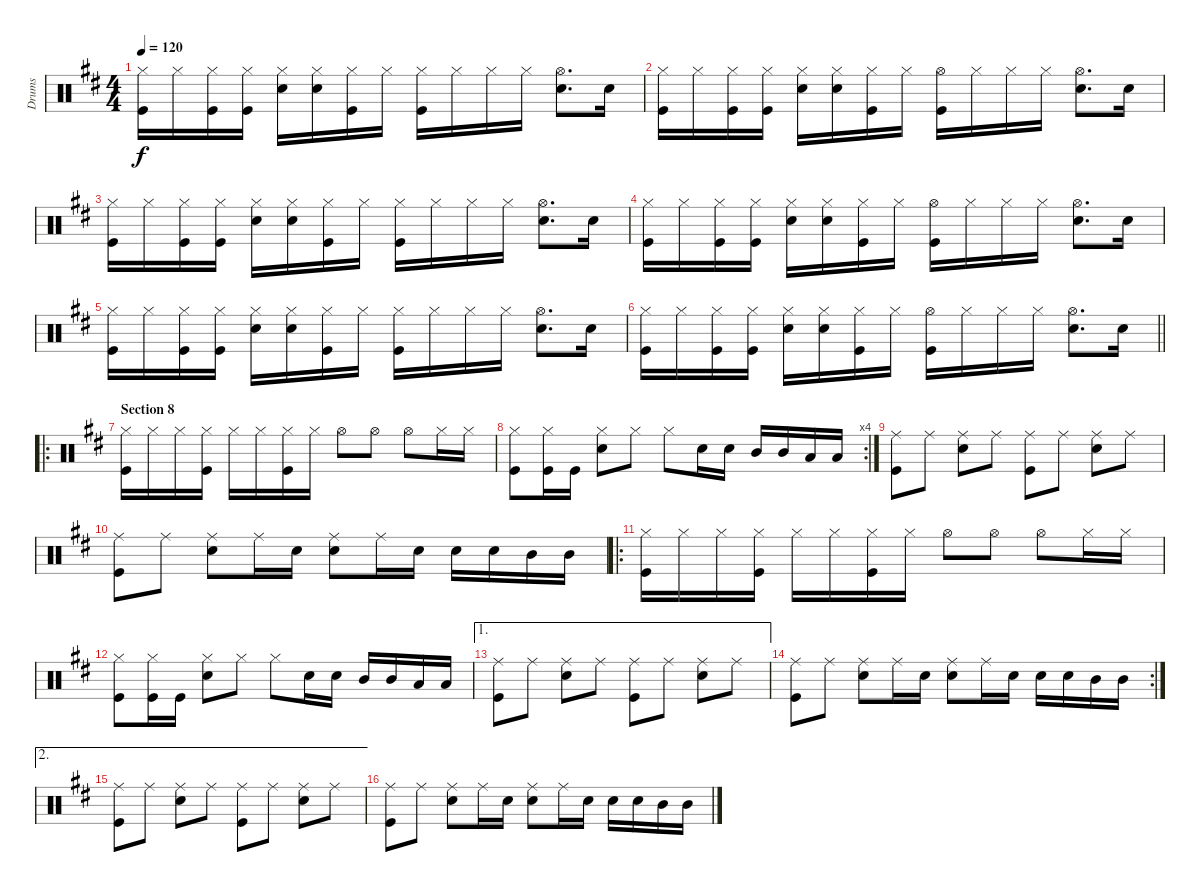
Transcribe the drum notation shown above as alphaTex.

\track ("Drums" "Drums") {instrument percussion}
\staff {score}
\articulation defaults
\ts (4 4)
\tempo 120
\clef neutral
\ks d
("Hi-Hat (closed)" "Kick (hit)").16{dy f} "Hi-Hat (closed)".16 ("Hi-Hat (closed)" "Kick (hit)").16 ("Hi-Hat (closed)" "Kick (hit)").16 ("Hi-Hat (closed)" "Snare (hit) 2").16 ("Hi-Hat (closed)" "Snare (hit) 2").16 ("Hi-Hat (closed)" "Kick (hit)").16 "Hi-Hat (closed)".16 ("Hi-Hat (closed)" "Kick (hit)").16 "Hi-Hat (closed)".16 "Hi-Hat (closed)".16 "Hi-Hat (closed)".16 ("Hi-Hat (open)" "Snare (hit) 2").8{d} "Snare (hit) 2".16 |
("Hi-Hat (closed)" "Kick (hit)").16 "Hi-Hat (closed)".16 ("Hi-Hat (closed)" "Kick (hit)").16 ("Hi-Hat (closed)" "Kick (hit)").16 ("Hi-Hat (closed)" "Snare (hit) 2").16 ("Hi-Hat (closed)" "Snare (hit) 2").16 ("Hi-Hat (closed)" "Kick (hit)").16 "Hi-Hat (closed)".16 ("Hi-Hat (open)" "Kick (hit)").16 "Hi-Hat (closed)".16 "Hi-Hat (closed)".16 "Hi-Hat (closed)".16 ("Hi-Hat (open)" "Snare (hit) 2").8{d} "Snare (hit) 2".16 |
("Hi-Hat (closed)" "Kick (hit)").16 "Hi-Hat (closed)".16 ("Hi-Hat (closed)" "Kick (hit)").16 ("Hi-Hat (closed)" "Kick (hit)").16 ("Hi-Hat (closed)" "Snare (hit) 2").16 ("Hi-Hat (closed)" "Snare (hit) 2").16 ("Hi-Hat (closed)" "Kick (hit)").16 "Hi-Hat (closed)".16 ("Hi-Hat (closed)" "Kick (hit)").16 "Hi-Hat (closed)".16 "Hi-Hat (closed)".16 "Hi-Hat (closed)".16 ("Hi-Hat (open)" "Snare (hit) 2").8{d} "Snare (hit) 2".16 |
("Hi-Hat (closed)" "Kick (hit)").16 "Hi-Hat (closed)".16 ("Hi-Hat (closed)" "Kick (hit)").16 ("Hi-Hat (closed)" "Kick (hit)").16 ("Hi-Hat (closed)" "Snare (hit) 2").16 ("Hi-Hat (closed)" "Snare (hit) 2").16 ("Hi-Hat (closed)" "Kick (hit)").16 "Hi-Hat (closed)".16 ("Hi-Hat (open)" "Kick (hit)").16 "Hi-Hat (closed)".16 "Hi-Hat (closed)".16 "Hi-Hat (closed)".16 ("Hi-Hat (open)" "Snare (hit) 2").8{d} "Snare (hit) 2".16 |
("Hi-Hat (closed)" "Kick (hit)").16 "Hi-Hat (closed)".16 ("Hi-Hat (closed)" "Kick (hit)").16 ("Hi-Hat (closed)" "Kick (hit)").16 ("Hi-Hat (closed)" "Snare (hit) 2").16 ("Hi-Hat (closed)" "Snare (hit) 2").16 ("Hi-Hat (closed)" "Kick (hit)").16 "Hi-Hat (closed)".16 ("Hi-Hat (closed)" "Kick (hit)").16 "Hi-Hat (closed)".16 "Hi-Hat (closed)".16 "Hi-Hat (closed)".16 ("Hi-Hat (open)" "Snare (hit) 2").8{d} "Snare (hit) 2".16 |
\barLineRight lightlight
("Hi-Hat (closed)" "Kick (hit)").16 "Hi-Hat (closed)".16 ("Hi-Hat (closed)" "Kick (hit)").16 ("Hi-Hat (closed)" "Kick (hit)").16 ("Hi-Hat (closed)" "Snare (hit) 2").16 ("Hi-Hat (closed)" "Snare (hit) 2").16 ("Hi-Hat (closed)" "Kick (hit)").16 "Hi-Hat (closed)".16 ("Hi-Hat (open)" "Kick (hit)").16 "Hi-Hat (closed)".16 "Hi-Hat (closed)".16 "Hi-Hat (closed)".16 ("Hi-Hat (open)" "Snare (hit) 2").8{d} "Snare (hit) 2".16 |
\ro
\section ("" "Section 8")
("Hi-Hat (closed)" "Kick (hit)").16 "Hi-Hat (closed)".16 "Hi-Hat (closed)".16 ("Hi-Hat (closed)" "Kick (hit)").16 "Hi-Hat (closed)".16 "Hi-Hat (closed)".16 ("Hi-Hat (closed)" "Kick (hit)").16 "Hi-Hat (closed)".16 "Hi-Hat (open)".8 "Hi-Hat (open)".8 "Hi-Hat (open)".8 "Hi-Hat (closed)".16 "Hi-Hat (closed)".16 |
\rc 4
("Hi-Hat (closed)" "Kick (hit)").8 ("Hi-Hat (closed)" "Kick (hit)").16 "Kick (hit)".16 ("Hi-Hat (closed)" "Snare (hit) 2").8 "Hi-Hat (closed)".8 "Hi-Hat (closed)".8 "Snare (hit) 2".16 "Snare (hit) 2".16 "Mid Tom (hit)".16 "Mid Tom (hit)".16 "Low Tom (hit)".16 "Low Tom (hit)".16 |
("Ride (middle)" "Kick (hit)").8 "Ride (middle)".8 ("Ride (middle)" "Snare (hit) 2").8 "Ride (middle)".8 ("Ride (middle)" "Kick (hit)").8 "Ride (middle)".8 ("Ride (middle)" "Snare (hit) 2").8 "Ride (middle)".8 |
("Ride (middle)" "Kick (hit)").8 "Ride (middle)".8 ("Ride (middle)" "Snare (hit) 2").8 "Ride (middle)".16 "Snare (hit) 2".16 ("Ride (middle)" "Snare (hit) 2").8 "Ride (middle)".16 "Snare (hit) 2".16 "Snare (hit) 2".16 "Snare (hit) 2".16 "Mid Tom (hit)".16 "Mid Tom (hit)".16 |
\ro
("Hi-Hat (closed)" "Kick (hit)").16 "Hi-Hat (closed)".16 "Hi-Hat (closed)".16 ("Hi-Hat (closed)" "Kick (hit)").16 "Hi-Hat (closed)".16 "Hi-Hat (closed)".16 ("Hi-Hat (closed)" "Kick (hit)").16 "Hi-Hat (closed)".16 "Hi-Hat (open)".8 "Hi-Hat (open)".8 "Hi-Hat (open)".8 "Hi-Hat (closed)".16 "Hi-Hat (closed)".16 |
("Hi-Hat (closed)" "Kick (hit)").8 ("Hi-Hat (closed)" "Kick (hit)").16 "Kick (hit)".16 ("Hi-Hat (closed)" "Snare (hit) 2").8 "Hi-Hat (closed)".8 "Hi-Hat (closed)".8 "Snare (hit) 2".16 "Snare (hit) 2".16 "Mid Tom (hit)".16 "Mid Tom (hit)".16 "Low Tom (hit)".16 "Low Tom (hit)".16 |
\ae 1
("Ride (middle)" "Kick (hit)").8 "Ride (middle)".8 ("Ride (middle)" "Snare (hit) 2").8 "Ride (middle)".8 ("Ride (middle)" "Kick (hit)").8 "Ride (middle)".8 ("Ride (middle)" "Snare (hit) 2").8 "Ride (middle)".8 |
\rc 2
("Ride (middle)" "Kick (hit)").8 "Ride (middle)".8 ("Ride (middle)" "Snare (hit) 2").8 "Ride (middle)".16 "Snare (hit) 2".16 ("Ride (middle)" "Snare (hit) 2").8 "Ride (middle)".16 "Snare (hit) 2".16 "Snare (hit) 2".16 "Snare (hit) 2".16 "Mid Tom (hit)".16 "Mid Tom (hit)".16 |
\ae 2
("Ride (middle)" "Kick (hit)").8 "Ride (middle)".8 ("Ride (middle)" "Snare (hit) 2").8 "Ride (middle)".8 ("Ride (middle)" "Kick (hit)").8 "Ride (middle)".8 ("Ride (middle)" "Snare (hit) 2").8 "Ride (middle)".8 |
("Ride (middle)" "Kick (hit)").8 "Ride (middle)".8 ("Ride (middle)" "Snare (hit) 2").8 "Ride (middle)".16 "Snare (hit) 2".16 ("Ride (middle)" "Snare (hit) 2").8 "Ride (middle)".16 "Snare (hit) 2".16 "Snare (hit) 2".16 "Snare (hit) 2".16 "Mid Tom (hit)".16 "Mid Tom (hit)".16
